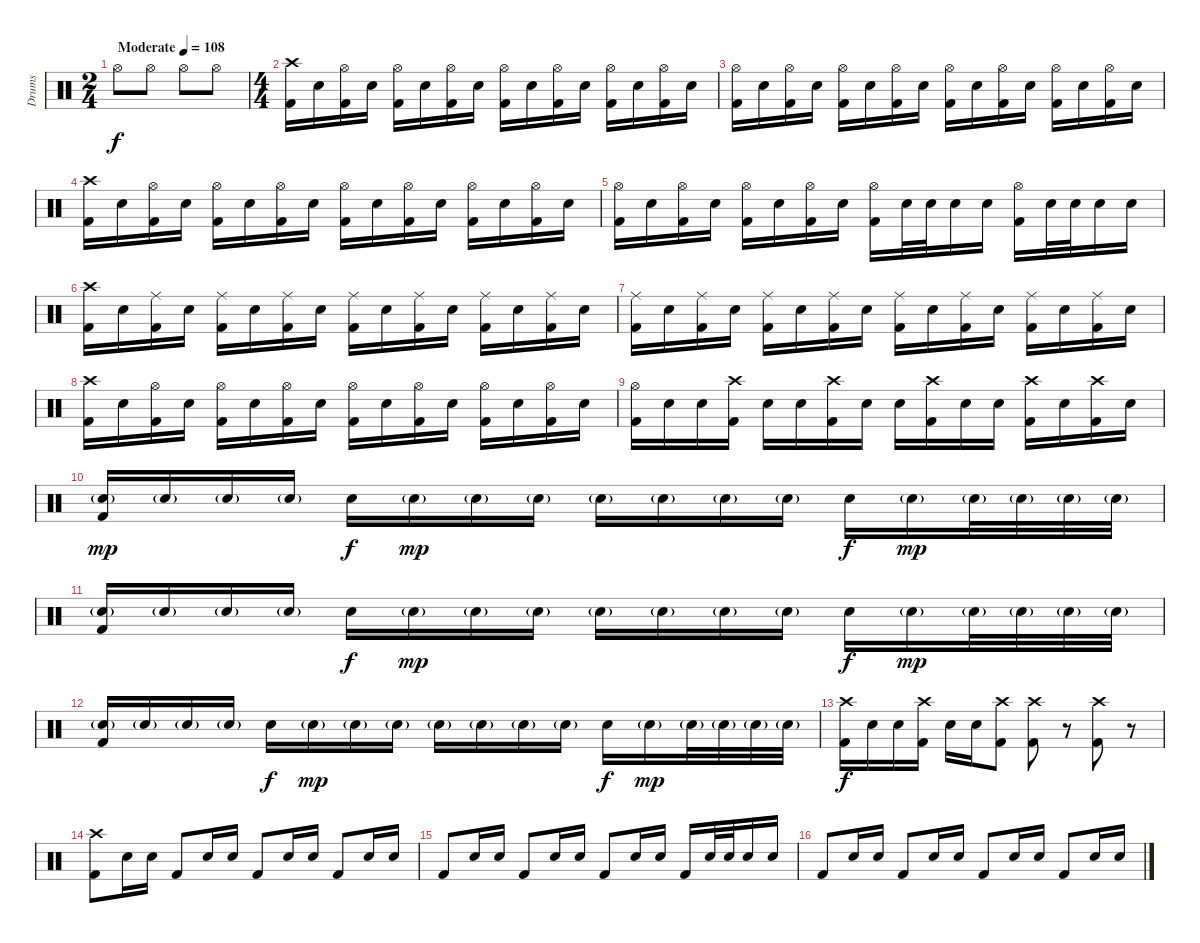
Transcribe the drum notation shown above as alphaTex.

\track ("Drums" "Drums") {instrument percussion}
\staff {score}
\articulation defaults
\ts (2 4)
\tempo (108 "Moderate")
\clef neutral
\ks c "Hi-Hat (open)".8{dy f} "Hi-Hat (open)".8 "Hi-Hat (open)".8 "Hi-Hat (open)".8
|
\ts (4 4)
("Crash high (hit)" "Kick (hit) 2").16 "Electric Snare (hit)".16 ("Hi-Hat (open)" "Kick (hit) 2").16 "Electric Snare (hit)".16 ("Hi-Hat (open)" "Kick (hit) 2").16 "Electric Snare (hit)".16 ("Hi-Hat (open)" "Kick (hit) 2").16 "Electric Snare (hit)".16 ("Hi-Hat (open)" "Kick (hit) 2").16 "Electric Snare (hit)".16 ("Hi-Hat (open)" "Kick (hit) 2").16 "Electric Snare (hit)".16 ("Hi-Hat (open)" "Kick (hit) 2").16 "Electric Snare (hit)".16 ("Hi-Hat (open)" "Kick (hit) 2").16 "Electric Snare (hit)".16 |
("Hi-Hat (open)" "Kick (hit) 2").16 "Electric Snare (hit)".16 ("Hi-Hat (open)" "Kick (hit) 2").16 "Electric Snare (hit)".16 ("Hi-Hat (open)" "Kick (hit) 2").16 "Electric Snare (hit)".16 ("Hi-Hat (open)" "Kick (hit) 2").16 "Electric Snare (hit)".16 ("Hi-Hat (open)" "Kick (hit) 2").16 "Electric Snare (hit)".16 ("Hi-Hat (open)" "Kick (hit) 2").16 "Electric Snare (hit)".16 ("Hi-Hat (open)" "Kick (hit) 2").16 "Electric Snare (hit)".16 ("Hi-Hat (open)" "Kick (hit) 2").16 "Electric Snare (hit)".16 |
("Crash high (hit)" "Kick (hit) 2").16 "Electric Snare (hit)".16 ("Hi-Hat (open)" "Kick (hit) 2").16 "Electric Snare (hit)".16 ("Hi-Hat (open)" "Kick (hit) 2").16 "Electric Snare (hit)".16 ("Hi-Hat (open)" "Kick (hit) 2").16 "Electric Snare (hit)".16 ("Hi-Hat (open)" "Kick (hit) 2").16 "Electric Snare (hit)".16 ("Hi-Hat (open)" "Kick (hit) 2").16 "Electric Snare (hit)".16 ("Hi-Hat (open)" "Kick (hit) 2").16 "Electric Snare (hit)".16 ("Hi-Hat (open)" "Kick (hit) 2").16 "Electric Snare (hit)".16 |
("Hi-Hat (open)" "Kick (hit) 2").16 "Electric Snare (hit)".16 ("Hi-Hat (open)" "Kick (hit) 2").16 "Electric Snare (hit)".16 ("Hi-Hat (open)" "Kick (hit) 2").16 "Electric Snare (hit)".16 ("Hi-Hat (open)" "Kick (hit) 2").16 "Electric Snare (hit)".16 ("Hi-Hat (open)" "Kick (hit) 2").16 "Electric Snare (hit)".32 "Electric Snare (hit)".32 "Electric Snare (hit)".16 "Electric Snare (hit)".16 ("Hi-Hat (open)" "Kick (hit) 2").16 "Electric Snare (hit)".32 "Electric Snare (hit)".32 "Electric Snare (hit)".16 "Electric Snare (hit)".16 |
("Crash high (hit)" "Kick (hit) 2").16 "Electric Snare (hit)".16 ("Ride (middle)" "Kick (hit) 2").16 "Electric Snare (hit)".16 ("Ride (middle)" "Kick (hit) 2").16 "Electric Snare (hit)".16 ("Ride (middle)" "Kick (hit) 2").16 "Electric Snare (hit)".16 ("Ride (middle)" "Kick (hit) 2").16 "Electric Snare (hit)".16 ("Ride (middle)" "Kick (hit) 2").16 "Electric Snare (hit)".16 ("Ride (middle)" "Kick (hit) 2").16 "Electric Snare (hit)".16 ("Ride (middle)" "Kick (hit) 2").16 "Electric Snare (hit)".16 |
("Ride (middle)" "Kick (hit) 2").16 "Electric Snare (hit)".16 ("Ride (middle)" "Kick (hit) 2").16 "Electric Snare (hit)".16 ("Ride (middle)" "Kick (hit) 2").16 "Electric Snare (hit)".16 ("Ride (middle)" "Kick (hit) 2").16 "Electric Snare (hit)".16 ("Ride (middle)" "Kick (hit) 2").16 "Electric Snare (hit)".16 ("Ride (middle)" "Kick (hit) 2").16 "Electric Snare (hit)".16 ("Ride (middle)" "Kick (hit) 2").16 "Electric Snare (hit)".16 ("Ride (middle)" "Kick (hit) 2").16 "Electric Snare (hit)".16 |
("Crash high (hit)" "Kick (hit) 2").16 "Electric Snare (hit)".16 ("Hi-Hat (open)" "Kick (hit) 2").16 "Electric Snare (hit)".16 ("Hi-Hat (open)" "Kick (hit) 2").16 "Electric Snare (hit)".16 ("Hi-Hat (open)" "Kick (hit) 2").16 "Electric Snare (hit)".16 ("Hi-Hat (open)" "Kick (hit) 2").16 "Electric Snare (hit)".16 ("Hi-Hat (open)" "Kick (hit) 2").16 "Electric Snare (hit)".16 ("Hi-Hat (open)" "Kick (hit) 2").16 "Electric Snare (hit)".16 ("Hi-Hat (open)" "Kick (hit) 2").16 "Electric Snare (hit)".16 |
("Hi-Hat (open)" "Kick (hit) 2").16 "Electric Snare (hit)".16 "Electric Snare (hit)".16 ("Crash high (hit)" "Kick (hit) 2").16 "Electric Snare (hit)".16 "Electric Snare (hit)".16 ("Crash high (hit)" "Kick (hit) 2").16 "Electric Snare (hit)".16 "Electric Snare (hit)".16 ("Crash high (hit)" "Kick (hit) 2").16 "Electric Snare (hit)".16 "Electric Snare (hit)".16 ("Crash high (hit)" "Kick (hit) 2").16 "Electric Snare (hit)".16 ("Crash high (hit)" "Kick (hit) 2").16 "Electric Snare (hit)".16 |
("Electric Snare (hit)"{g} "Kick (hit) 2").16{dy mp} "Electric Snare (hit)"{g}.16 "Electric Snare (hit)"{g}.16 "Electric Snare (hit)"{g}.16 "Electric Snare (hit)".16{dy f} "Electric Snare (hit)"{g}.16{dy mp} "Electric Snare (hit)"{g}.16 "Electric Snare (hit)"{g}.16 "Electric Snare (hit)"{g}.16 "Electric Snare (hit)"{g}.16 "Electric Snare (hit)"{g}.16 "Electric Snare (hit)"{g}.16 "Electric Snare (hit)".16{dy f} "Electric Snare (hit)"{g}.16{dy mp} "Electric Snare (hit)"{g}.32 "Electric Snare (hit)"{g}.32 "Electric Snare (hit)"{g}.32 "Electric Snare (hit)"{g}.32 |
("Electric Snare (hit)"{g} "Kick (hit) 2").16 "Electric Snare (hit)"{g}.16 "Electric Snare (hit)"{g}.16 "Electric Snare (hit)"{g}.16 "Electric Snare (hit)".16{dy f} "Electric Snare (hit)"{g}.16{dy mp} "Electric Snare (hit)"{g}.16 "Electric Snare (hit)"{g}.16 "Electric Snare (hit)"{g}.16 "Electric Snare (hit)"{g}.16 "Electric Snare (hit)"{g}.16 "Electric Snare (hit)"{g}.16 "Electric Snare (hit)".16{dy f} "Electric Snare (hit)"{g}.16{dy mp} "Electric Snare (hit)"{g}.32 "Electric Snare (hit)"{g}.32 "Electric Snare (hit)"{g}.32 "Electric Snare (hit)"{g}.32 |
("Electric Snare (hit)"{g} "Kick (hit) 2").16 "Electric Snare (hit)"{g}.16 "Electric Snare (hit)"{g}.16 "Electric Snare (hit)"{g}.16 "Electric Snare (hit)".16{dy f} "Electric Snare (hit)"{g}.16{dy mp} "Electric Snare (hit)"{g}.16 "Electric Snare (hit)"{g}.16 "Electric Snare (hit)"{g}.16 "Electric Snare (hit)"{g}.16 "Electric Snare (hit)"{g}.16 "Electric Snare (hit)"{g}.16 "Electric Snare (hit)".16{dy f} "Electric Snare (hit)"{g}.16{dy mp} "Electric Snare (hit)"{g}.32 "Electric Snare (hit)"{g}.32 "Electric Snare (hit)"{g}.32 "Electric Snare (hit)"{g}.32 |
("Crash high (hit)" "Kick (hit) 2").16{dy f} "Electric Snare (hit)".16 "Electric Snare (hit)".16 ("Crash high (hit)" "Kick (hit) 2").16 "Electric Snare (hit)".16 "Electric Snare (hit)".16 ("Crash high (hit)" "Kick (hit) 2").8 ("Crash high (hit)" "Kick (hit) 2").8 r.8 ("Crash high (hit)" "Kick (hit) 2").8 r.8 |
("Crash high (hit)" "Kick (hit) 2").8 "Electric Snare (hit)".16 "Electric Snare (hit)".16 "Kick (hit) 2".8 "Electric Snare (hit)".16 "Electric Snare (hit)".16 "Kick (hit) 2".8 "Electric Snare (hit)".16 "Electric Snare (hit)".16 "Kick (hit) 2".8 "Electric Snare (hit)".16 "Electric Snare (hit)".16 |
"Kick (hit) 2".8 "Electric Snare (hit)".16 "Electric Snare (hit)".16 "Kick (hit) 2".8 "Electric Snare (hit)".16 "Electric Snare (hit)".16 "Kick (hit) 2".8 "Electric Snare (hit)".16 "Electric Snare (hit)".16 "Kick (hit) 2".16 "Electric Snare (hit)".32 "Electric Snare (hit)".32 "Electric Snare (hit)".16 "Electric Snare (hit)".16 |
"Kick (hit) 2".8 "Electric Snare (hit)".16 "Electric Snare (hit)".16 "Kick (hit) 2".8 "Electric Snare (hit)".16 "Electric Snare (hit)".16 "Kick (hit) 2".8 "Electric Snare (hit)".16 "Electric Snare (hit)".16 "Kick (hit) 2".8 "Electric Snare (hit)".16 "Electric Snare (hit)".16
